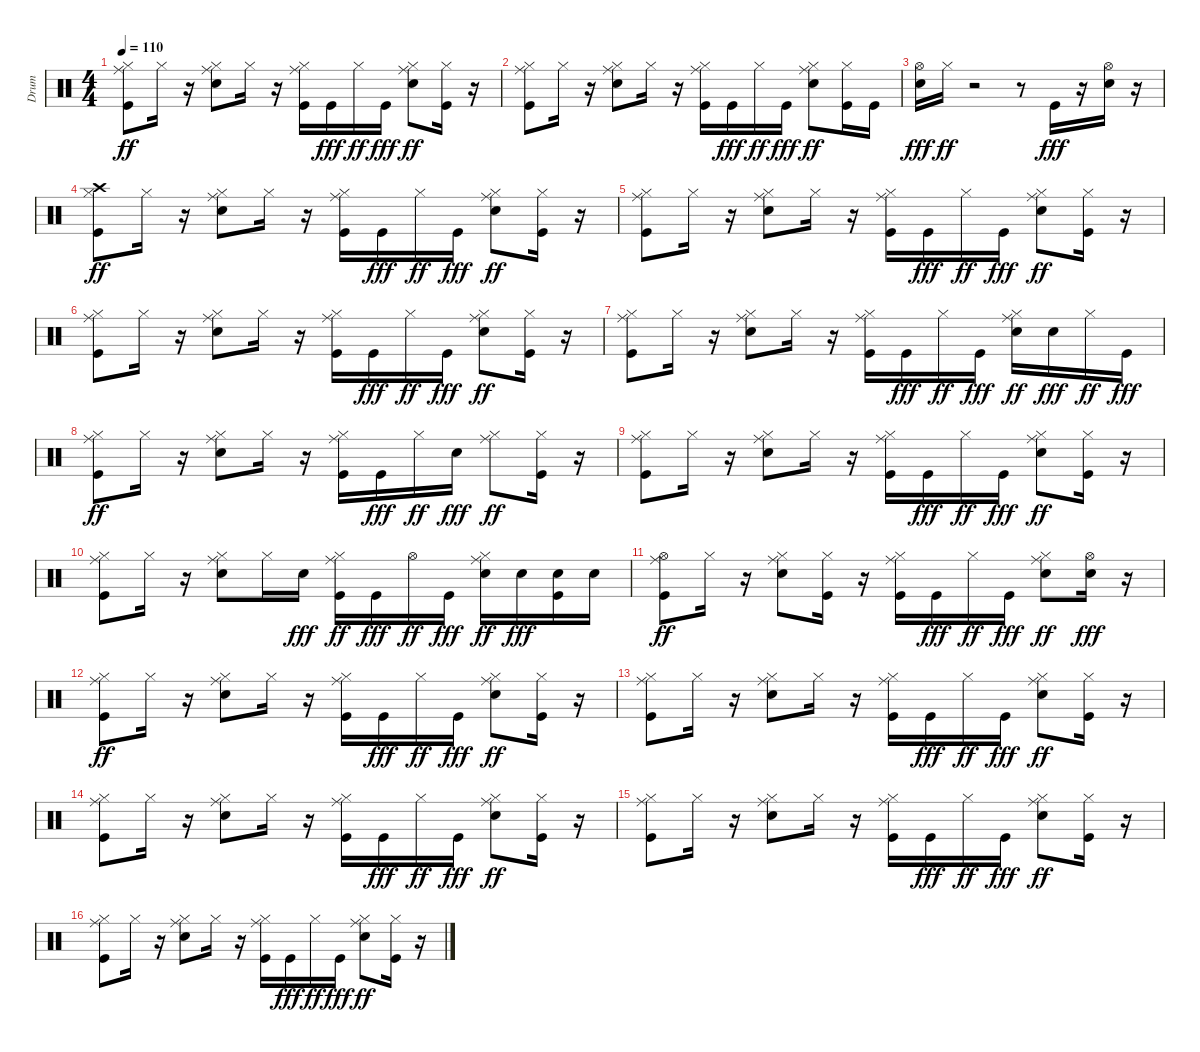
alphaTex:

\track ("Drum" "Drum") {instrument percussion}
\staff {score}
\articulation defaults
\ts (4 4)
\tempo 110
\clef neutral
\ks c
("Kick (hit)" "Hi-Hat (closed)" "Ride (middle)").8{dy ff} "Hi-Hat (closed)".16 r.16 ("Electric Snare (hit)" "Hi-Hat (closed)" "Ride (middle)").8 "Hi-Hat (closed)".16 r.16 ("Kick (hit)" "Hi-Hat (closed)" "Ride (middle)").16 "Kick (hit)".16{dy fff} "Hi-Hat (closed)".16{dy ff} "Kick (hit)".16{dy fff} ("Electric Snare (hit)" "Hi-Hat (closed)" "Ride (middle)").8{dy ff} ("Kick (hit)" "Hi-Hat (closed)").16 r.16 |
("Kick (hit)" "Hi-Hat (closed)" "Ride (middle)").8 "Hi-Hat (closed)".16 r.16 ("Electric Snare (hit)" "Hi-Hat (closed)" "Ride (middle)").8 "Hi-Hat (closed)".16 r.16 ("Kick (hit)" "Hi-Hat (closed)" "Ride (middle)").16 "Kick (hit)".16{dy fff} "Hi-Hat (closed)".16{dy ff} "Kick (hit)".16{dy fff} ("Electric Snare (hit)" "Hi-Hat (closed)" "Ride (middle)").8{dy ff} ("Kick (hit)" "Hi-Hat (closed)").16 "Kick (hit)".16 |
("Hi-Hat (open)" "Electric Snare (hit)").16{dy fff} "Hi-Hat (closed)".16{dy ff} r.2 r.8 "Kick (hit)".16{dy fff} r.16 ("Hi-Hat (open)" "Electric Snare (hit)").16 r.16 |
("Crash high (hit)" "Kick (hit)" "Hi-Hat (closed)").8{dy ff} "Hi-Hat (closed)".16 r.16 ("Electric Snare (hit)" "Hi-Hat (closed)" "Ride (middle)").8 "Hi-Hat (closed)".16 r.16 ("Kick (hit)" "Hi-Hat (closed)" "Ride (middle)").16 "Kick (hit)".16{dy fff} "Hi-Hat (closed)".16{dy ff} "Kick (hit)".16{dy fff} ("Electric Snare (hit)" "Hi-Hat (closed)" "Ride (middle)").8{dy ff} ("Kick (hit)" "Hi-Hat (closed)").16 r.16 |
("Kick (hit)" "Hi-Hat (closed)" "Ride (middle)").8 "Hi-Hat (closed)".16 r.16 ("Electric Snare (hit)" "Hi-Hat (closed)" "Ride (middle)").8 "Hi-Hat (closed)".16 r.16 ("Kick (hit)" "Hi-Hat (closed)" "Ride (middle)").16 "Kick (hit)".16{dy fff} "Hi-Hat (closed)".16{dy ff} "Kick (hit)".16{dy fff} ("Electric Snare (hit)" "Hi-Hat (closed)" "Ride (middle)").8{dy ff} ("Kick (hit)" "Hi-Hat (closed)").16 r.16 |
("Kick (hit)" "Hi-Hat (closed)" "Ride (middle)").8 "Hi-Hat (closed)".16 r.16 ("Electric Snare (hit)" "Hi-Hat (closed)" "Ride (middle)").8 "Hi-Hat (closed)".16 r.16 ("Kick (hit)" "Hi-Hat (closed)" "Ride (middle)").16 "Kick (hit)".16{dy fff} "Hi-Hat (closed)".16{dy ff} "Kick (hit)".16{dy fff} ("Electric Snare (hit)" "Hi-Hat (closed)" "Ride (middle)").8{dy ff} ("Kick (hit)" "Hi-Hat (closed)").16 r.16 |
("Kick (hit)" "Hi-Hat (closed)" "Ride (middle)").8 "Hi-Hat (closed)".16 r.16 ("Electric Snare (hit)" "Hi-Hat (closed)" "Ride (middle)").8 "Hi-Hat (closed)".16 r.16 ("Kick (hit)" "Hi-Hat (closed)" "Ride (middle)").16 "Kick (hit)".16{dy fff} "Hi-Hat (closed)".16{dy ff} "Kick (hit)".16{dy fff} ("Electric Snare (hit)" "Hi-Hat (closed)" "Ride (middle)").16{dy ff} "Electric Snare (hit)".16{dy fff} "Hi-Hat (closed)".16{dy ff} "Kick (hit)".16{dy fff} |
("Kick (hit)" "Hi-Hat (closed)" "Ride (middle)").8{dy ff} "Hi-Hat (closed)".16 r.16 ("Electric Snare (hit)" "Hi-Hat (closed)" "Ride (middle)").8 "Hi-Hat (closed)".16 r.16 ("Kick (hit)" "Hi-Hat (closed)" "Ride (middle)").16 "Kick (hit)".16{dy fff} "Hi-Hat (closed)".16{dy ff} "Electric Snare (hit)".16{dy fff} ("Hi-Hat (closed)" "Ride (middle)").8{dy ff} ("Kick (hit)" "Hi-Hat (closed)").16 r.16 |
("Kick (hit)" "Hi-Hat (closed)" "Ride (middle)").8 "Hi-Hat (closed)".16 r.16 ("Electric Snare (hit)" "Hi-Hat (closed)" "Ride (middle)").8 "Hi-Hat (closed)".16 r.16 ("Kick (hit)" "Hi-Hat (closed)" "Ride (middle)").16 "Kick (hit)".16{dy fff} "Hi-Hat (closed)".16{dy ff} "Kick (hit)".16{dy fff} ("Electric Snare (hit)" "Hi-Hat (closed)" "Ride (middle)").8{dy ff} ("Kick (hit)" "Hi-Hat (closed)").16 r.16 |
("Kick (hit)" "Hi-Hat (closed)" "Ride (middle)").8 "Hi-Hat (closed)".16 r.16 ("Electric Snare (hit)" "Hi-Hat (closed)" "Ride (middle)").8 "Hi-Hat (closed)".16 "Electric Snare (hit)".16{dy fff} ("Kick (hit)" "Hi-Hat (closed)" "Ride (middle)").16{dy ff} "Kick (hit)".16{dy fff} "Hi-Hat (open)".16{dy ff} "Kick (hit)".16{dy fff} ("Electric Snare (hit)" "Hi-Hat (closed)" "Ride (middle)").16{dy ff} "Electric Snare (hit)".16{dy fff} ("Electric Snare (hit)" "Kick (hit)").16 "Electric Snare (hit)".16 |
("Hi-Hat (open)" "Kick (hit)" "Ride (middle)").8{dy ff} "Hi-Hat (closed)".16 r.16 ("Electric Snare (hit)" "Hi-Hat (closed)" "Ride (middle)").8 ("Kick (hit)" "Hi-Hat (closed)").16 r.16 ("Kick (hit)" "Hi-Hat (closed)" "Ride (middle)").16 "Kick (hit)".16{dy fff} "Hi-Hat (closed)".16{dy ff} "Kick (hit)".16{dy fff} ("Electric Snare (hit)" "Hi-Hat (closed)" "Ride (middle)").8{dy ff} ("Hi-Hat (open)" "Electric Snare (hit)").16{dy fff} r.16 |
("Kick (hit)" "Hi-Hat (closed)" "Ride (middle)").8{dy ff} "Hi-Hat (closed)".16 r.16 ("Electric Snare (hit)" "Hi-Hat (closed)" "Ride (middle)").8 "Hi-Hat (closed)".16 r.16 ("Kick (hit)" "Hi-Hat (closed)" "Ride (middle)").16 "Kick (hit)".16{dy fff} "Hi-Hat (closed)".16{dy ff} "Kick (hit)".16{dy fff} ("Electric Snare (hit)" "Hi-Hat (closed)" "Ride (middle)").8{dy ff} ("Kick (hit)" "Hi-Hat (closed)").16 r.16 |
("Kick (hit)" "Hi-Hat (closed)" "Ride (middle)").8 "Hi-Hat (closed)".16 r.16 ("Electric Snare (hit)" "Hi-Hat (closed)" "Ride (middle)").8 "Hi-Hat (closed)".16 r.16 ("Kick (hit)" "Hi-Hat (closed)" "Ride (middle)").16 "Kick (hit)".16{dy fff} "Hi-Hat (closed)".16{dy ff} "Kick (hit)".16{dy fff} ("Electric Snare (hit)" "Hi-Hat (closed)" "Ride (middle)").8{dy ff} ("Kick (hit)" "Hi-Hat (closed)").16 r.16 |
("Kick (hit)" "Hi-Hat (closed)" "Ride (middle)").8 "Hi-Hat (closed)".16 r.16 ("Electric Snare (hit)" "Hi-Hat (closed)" "Ride (middle)").8 "Hi-Hat (closed)".16 r.16 ("Kick (hit)" "Hi-Hat (closed)" "Ride (middle)").16 "Kick (hit)".16{dy fff} "Hi-Hat (closed)".16{dy ff} "Kick (hit)".16{dy fff} ("Electric Snare (hit)" "Hi-Hat (closed)" "Ride (middle)").8{dy ff} ("Kick (hit)" "Hi-Hat (closed)").16 r.16 |
("Kick (hit)" "Hi-Hat (closed)" "Ride (middle)").8 "Hi-Hat (closed)".16 r.16 ("Electric Snare (hit)" "Hi-Hat (closed)" "Ride (middle)").8 "Hi-Hat (closed)".16 r.16 ("Kick (hit)" "Hi-Hat (closed)" "Ride (middle)").16 "Kick (hit)".16{dy fff} "Hi-Hat (closed)".16{dy ff} "Kick (hit)".16{dy fff} ("Electric Snare (hit)" "Hi-Hat (closed)" "Ride (middle)").8{dy ff} ("Kick (hit)" "Hi-Hat (closed)").16 r.16 |
("Kick (hit)" "Hi-Hat (closed)" "Ride (middle)").8 "Hi-Hat (closed)".16 r.16 ("Electric Snare (hit)" "Hi-Hat (closed)" "Ride (middle)").8 "Hi-Hat (closed)".16 r.16 ("Kick (hit)" "Hi-Hat (closed)" "Ride (middle)").16 "Kick (hit)".16{dy fff} "Hi-Hat (closed)".16{dy ff} "Kick (hit)".16{dy fff} ("Electric Snare (hit)" "Hi-Hat (closed)" "Ride (middle)").8{dy ff} ("Kick (hit)" "Hi-Hat (closed)").16 r.16
